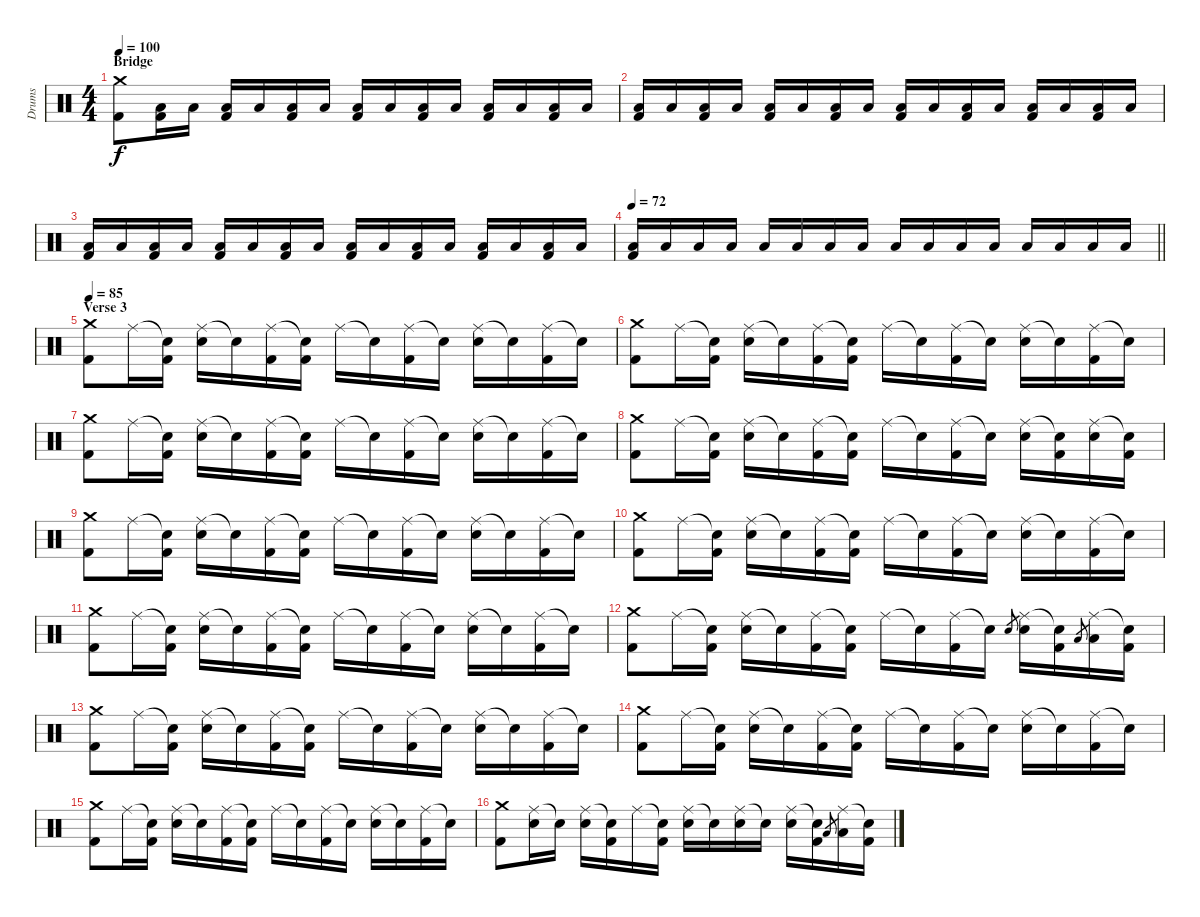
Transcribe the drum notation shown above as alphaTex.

\track ("Drums" "Drums") {instrument percussion}
\staff {score}
\articulation defaults
\ts (4 4)
\section ("" "Bridge")
\tempo 100
\clef neutral
\ks c
("Crash medium (hit)" "Kick (hit) 2").8{dy f} ("Low Floor Tom (hit)" "Kick (hit) 2").16 "Low Floor Tom (hit)".16 ("Low Floor Tom (hit)" "Kick (hit) 2").16 "Low Floor Tom (hit)".16 ("Low Floor Tom (hit)" "Kick (hit) 2").16 "Low Floor Tom (hit)".16 ("Low Floor Tom (hit)" "Kick (hit) 2").16 "Low Floor Tom (hit)".16 ("Low Floor Tom (hit)" "Kick (hit) 2").16 "Low Floor Tom (hit)".16 ("Low Floor Tom (hit)" "Kick (hit) 2").16 "Low Floor Tom (hit)".16 ("Low Floor Tom (hit)" "Kick (hit) 2").16 "Low Floor Tom (hit)".16 |
("Low Floor Tom (hit)" "Kick (hit) 2").16 "Low Floor Tom (hit)".16 ("Low Floor Tom (hit)" "Kick (hit) 2").16 "Low Floor Tom (hit)".16 ("Low Floor Tom (hit)" "Kick (hit) 2").16 "Low Floor Tom (hit)".16 ("Low Floor Tom (hit)" "Kick (hit) 2").16 "Low Floor Tom (hit)".16 ("Low Floor Tom (hit)" "Kick (hit) 2").16 "Low Floor Tom (hit)".16 ("Low Floor Tom (hit)" "Kick (hit) 2").16 "Low Floor Tom (hit)".16 ("Low Floor Tom (hit)" "Kick (hit) 2").16 "Low Floor Tom (hit)".16 ("Low Floor Tom (hit)" "Kick (hit) 2").16 "Low Floor Tom (hit)".16 |
("Low Floor Tom (hit)" "Kick (hit) 2").16 "Low Floor Tom (hit)".16 ("Low Floor Tom (hit)" "Kick (hit) 2").16 "Low Floor Tom (hit)".16 ("Low Floor Tom (hit)" "Kick (hit) 2").16 "Low Floor Tom (hit)".16 ("Low Floor Tom (hit)" "Kick (hit) 2").16 "Low Floor Tom (hit)".16 ("Low Floor Tom (hit)" "Kick (hit) 2").16 "Low Floor Tom (hit)".16 ("Low Floor Tom (hit)" "Kick (hit) 2").16 "Low Floor Tom (hit)".16 ("Low Floor Tom (hit)" "Kick (hit) 2").16 "Low Floor Tom (hit)".16 ("Low Floor Tom (hit)" "Kick (hit) 2").16 "Low Floor Tom (hit)".16 |
\tempo 72
\barLineRight lightlight
("Low Floor Tom (hit)" "Kick (hit) 2").16 "Low Floor Tom (hit)".16 "Low Floor Tom (hit)".16 "Low Floor Tom (hit)".16 "Low Floor Tom (hit)".16 "Low Floor Tom (hit)".16 "Low Floor Tom (hit)".16 "Low Floor Tom (hit)".16 "Low Floor Tom (hit)".16 "Low Floor Tom (hit)".16 "Low Floor Tom (hit)".16 "Low Floor Tom (hit)".16 "Low Floor Tom (hit)".16 "Low Floor Tom (hit)".16 "Low Floor Tom (hit)".16 "Low Floor Tom (hit)".16 |
\section ("" "Verse 3")
\tempo 85
("Crash medium (hit)" "Kick (hit) 2").8 "Ride (middle)".16 ("Snare (hit)"{t} "Kick (hit) 2").16 ("Ride (middle)" "Electric Snare (hit)").16 "Snare (hit)"{t}.16 ("Ride (middle)" "Kick (hit) 2").16 ("Snare (hit)"{t} "Kick (hit) 2").16 "Ride (middle)".16 "Snare (hit)"{t}.16 ("Ride (middle)" "Kick (hit) 2").16 "Snare (hit)"{t}.16 ("Ride (middle)" "Electric Snare (hit)").16 "Snare (hit)"{t}.16 ("Ride (middle)" "Kick (hit) 2").16 "Snare (hit)"{t}.16 |
("Crash medium (hit)" "Kick (hit) 2").8 "Ride (middle)".16 ("Snare (hit)"{t} "Kick (hit) 2").16 ("Ride (middle)" "Electric Snare (hit)").16 "Snare (hit)"{t}.16 ("Ride (middle)" "Kick (hit) 2").16 ("Snare (hit)"{t} "Kick (hit) 2").16 "Ride (middle)".16 "Snare (hit)"{t}.16 ("Ride (middle)" "Kick (hit) 2").16 "Snare (hit)"{t}.16 ("Ride (middle)" "Electric Snare (hit)").16 "Snare (hit)"{t}.16 ("Ride (middle)" "Kick (hit) 2").16 "Snare (hit)"{t}.16 |
("Crash medium (hit)" "Kick (hit) 2").8 "Ride (middle)".16 ("Snare (hit)"{t} "Kick (hit) 2").16 ("Ride (middle)" "Electric Snare (hit)").16 "Snare (hit)"{t}.16 ("Ride (middle)" "Kick (hit) 2").16 ("Snare (hit)"{t} "Kick (hit) 2").16 "Ride (middle)".16 "Snare (hit)"{t}.16 ("Ride (middle)" "Kick (hit) 2").16 "Snare (hit)"{t}.16 ("Ride (middle)" "Electric Snare (hit)").16 "Snare (hit)"{t}.16 ("Ride (middle)" "Kick (hit) 2").16 "Snare (hit)"{t}.16 |
("Crash medium (hit)" "Kick (hit) 2").8 "Ride (middle)".16 ("Snare (hit)"{t} "Kick (hit) 2").16 ("Ride (middle)" "Electric Snare (hit)").16 "Snare (hit)"{t}.16 ("Ride (middle)" "Kick (hit) 2").16 ("Snare (hit)"{t} "Kick (hit) 2").16 "Ride (middle)".16 "Snare (hit)"{t}.16 ("Ride (middle)" "Kick (hit) 2").16 "Snare (hit)"{t}.16 ("Ride (middle)" "Electric Snare (hit)").16 ("Snare (hit)"{t} "Kick (hit) 2").16 ("Ride (middle)" "Electric Snare (hit)").16 ("Snare (hit)"{t} "Kick (hit) 2").16 |
("Crash medium (hit)" "Kick (hit) 2").8 "Ride (middle)".16 ("Snare (hit)"{t} "Kick (hit) 2").16 ("Ride (middle)" "Electric Snare (hit)").16 "Snare (hit)"{t}.16 ("Ride (middle)" "Kick (hit) 2").16 ("Snare (hit)"{t} "Kick (hit) 2").16 "Ride (middle)".16 "Snare (hit)"{t}.16 ("Ride (middle)" "Kick (hit) 2").16 "Snare (hit)"{t}.16 ("Ride (middle)" "Electric Snare (hit)").16 "Snare (hit)"{t}.16 ("Ride (middle)" "Kick (hit) 2").16 "Snare (hit)"{t}.16 |
("Crash medium (hit)" "Kick (hit) 2").8 "Ride (middle)".16 ("Snare (hit)"{t} "Kick (hit) 2").16 ("Ride (middle)" "Electric Snare (hit)").16 "Snare (hit)"{t}.16 ("Ride (middle)" "Kick (hit) 2").16 ("Snare (hit)"{t} "Kick (hit) 2").16 "Ride (middle)".16 "Snare (hit)"{t}.16 ("Ride (middle)" "Kick (hit) 2").16 "Snare (hit)"{t}.16 ("Ride (middle)" "Electric Snare (hit)").16 "Snare (hit)"{t}.16 ("Ride (middle)" "Kick (hit) 2").16 "Snare (hit)"{t}.16 |
("Crash medium (hit)" "Kick (hit) 2").8 "Ride (middle)".16 ("Snare (hit)"{t} "Kick (hit) 2").16 ("Ride (middle)" "Electric Snare (hit)").16 "Snare (hit)"{t}.16 ("Ride (middle)" "Kick (hit) 2").16 ("Snare (hit)"{t} "Kick (hit) 2").16 "Ride (middle)".16 "Snare (hit)"{t}.16 ("Ride (middle)" "Kick (hit) 2").16 "Snare (hit)"{t}.16 ("Ride (middle)" "Electric Snare (hit)").16 "Snare (hit)"{t}.16 ("Ride (middle)" "Kick (hit) 2").16 "Snare (hit)"{t}.16 |
("Crash medium (hit)" "Kick (hit) 2").8 "Ride (middle)".16 ("Snare (hit)"{t} "Kick (hit) 2").16 ("Ride (middle)" "Electric Snare (hit)").16 "Snare (hit)"{t}.16 ("Ride (middle)" "Kick (hit) 2").16 ("Snare (hit)"{t} "Kick (hit) 2").16 "Ride (middle)".16 "Snare (hit)"{t}.16 ("Ride (middle)" "Kick (hit) 2").16 "Snare (hit)"{t}.16 "Electric Snare (hit)".8{gr} ("Ride (middle)" "Electric Snare (hit)").16 ("Snare (hit)"{t} "Kick (hit) 2").16 "Low Tom (hit)".8{gr} ("Ride (middle)" "Low Tom (hit)").16 ("Snare (hit)"{t} "Kick (hit) 2").16 |
("Crash medium (hit)" "Kick (hit) 2").8 "Ride (middle)".16 ("Snare (hit)"{t} "Kick (hit) 2").16 ("Ride (middle)" "Electric Snare (hit)").16 "Snare (hit)"{t}.16 ("Ride (middle)" "Kick (hit) 2").16 ("Snare (hit)"{t} "Kick (hit) 2").16 "Ride (middle)".16 "Snare (hit)"{t}.16 ("Ride (middle)" "Kick (hit) 2").16 "Snare (hit)"{t}.16 ("Ride (middle)" "Electric Snare (hit)").16 "Snare (hit)"{t}.16 ("Ride (middle)" "Kick (hit) 2").16 "Snare (hit)"{t}.16 |
("Crash medium (hit)" "Kick (hit) 2").8 "Ride (middle)".16 ("Snare (hit)"{t} "Kick (hit) 2").16 ("Ride (middle)" "Electric Snare (hit)").16 "Snare (hit)"{t}.16 ("Ride (middle)" "Kick (hit) 2").16 ("Snare (hit)"{t} "Kick (hit) 2").16 "Ride (middle)".16 "Snare (hit)"{t}.16 ("Ride (middle)" "Kick (hit) 2").16 "Snare (hit)"{t}.16 ("Ride (middle)" "Electric Snare (hit)").16 "Snare (hit)"{t}.16 ("Ride (middle)" "Kick (hit) 2").16 "Snare (hit)"{t}.16 |
("Crash medium (hit)" "Kick (hit) 2").8 "Ride (middle)".16 ("Snare (hit)"{t} "Kick (hit) 2").16 ("Ride (middle)" "Electric Snare (hit)").16 "Snare (hit)"{t}.16 ("Ride (middle)" "Kick (hit) 2").16 ("Snare (hit)"{t} "Kick (hit) 2").16 "Ride (middle)".16 "Snare (hit)"{t}.16 ("Ride (middle)" "Kick (hit) 2").16 "Snare (hit)"{t}.16 ("Ride (middle)" "Electric Snare (hit)").16 "Snare (hit)"{t}.16 ("Ride (middle)" "Kick (hit) 2").16 "Snare (hit)"{t}.16 |
("Crash medium (hit)" "Kick (hit) 2").8 ("Ride (middle)" "Electric Snare (hit)").16 "Snare (hit)"{t}.16 ("Ride (middle)" "Electric Snare (hit)").16 ("Snare (hit)"{t} "Kick (hit) 2").16 "Ride (middle)".16 ("Snare (hit)"{t} "Kick (hit) 2").16 ("Ride (middle)" "Electric Snare (hit)").16 "Snare (hit)"{t}.16 ("Ride (middle)" "Electric Snare (hit)").16 "Snare (hit)"{t}.16 ("Ride (middle)" "Electric Snare (hit)").16 ("Snare (hit)"{t} "Kick (hit) 2").16 "Low Tom (hit)".8{gr} ("Ride (middle)" "Low Tom (hit)").16 ("Snare (hit)"{t} "Kick (hit) 2").16
